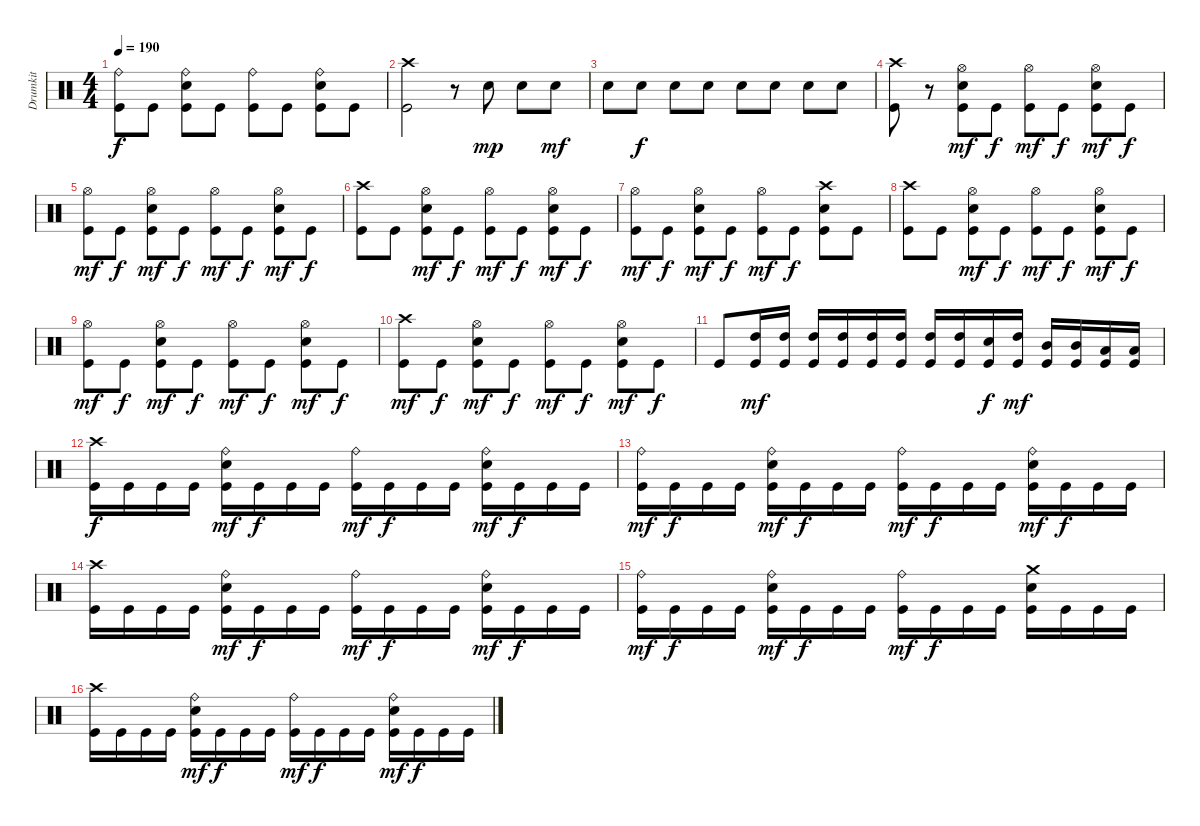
\track ("Drumkit" "Drumkit") {instrument percussion}
\staff {score}
\articulation defaults
\ts (4 4)
\tempo 190
\clef neutral
\ks c
("Ride (bell)" "Kick (hit)").8{dy f} "Kick (hit)".8 ("Ride (bell)" "Snare (hit) 2" "Kick (hit)").8 "Kick (hit)".8 ("Ride (bell)" "Kick (hit)").8 "Kick (hit)".8 ("Ride (bell)" "Snare (hit) 2" "Kick (hit)").8 "Kick (hit)".8 |
("Crash high (hit)" "Kick (hit)").2 r.8 "Snare (hit) 2".8{dy mp} "Snare (hit) 2".8 "Snare (hit) 2".8{dy mf} |
"Snare (hit) 2".8 "Snare (hit) 2".8{dy f} "Snare (hit) 2".8 "Snare (hit) 2".8 "Snare (hit) 2".8 "Snare (hit) 2".8 "Snare (hit) 2".8 "Snare (hit) 2".8 |
("Crash high (hit)" "Kick (hit)").8 r.8 ("Hi-Hat (open)" "Snare (hit) 2" "Kick (hit)").8{dy mf} "Kick (hit)".8{dy f} ("Hi-Hat (open)" "Kick (hit)").8{dy mf} "Kick (hit)".8{dy f} ("Hi-Hat (open)" "Snare (hit) 2" "Kick (hit)").8{dy mf} "Kick (hit)".8{dy f} |
("Hi-Hat (open)" "Kick (hit)").8{dy mf} "Kick (hit)".8{dy f} ("Hi-Hat (open)" "Snare (hit) 2" "Kick (hit)").8{dy mf} "Kick (hit)".8{dy f} ("Hi-Hat (open)" "Kick (hit)").8{dy mf} "Kick (hit)".8{dy f} ("Hi-Hat (open)" "Snare (hit) 2" "Kick (hit)").8{dy mf} "Kick (hit)".8{dy f} |
("Crash high (hit)" "Kick (hit)").8 "Kick (hit)".8 ("Hi-Hat (open)" "Snare (hit) 2" "Kick (hit)").8{dy mf} "Kick (hit)".8{dy f} ("Hi-Hat (open)" "Kick (hit)").8{dy mf} "Kick (hit)".8{dy f} ("Hi-Hat (open)" "Snare (hit) 2" "Kick (hit)").8{dy mf} "Kick (hit)".8{dy f} |
("Hi-Hat (open)" "Kick (hit)").8{dy mf} "Kick (hit)".8{dy f} ("Hi-Hat (open)" "Snare (hit) 2" "Kick (hit)").8{dy mf} "Kick (hit)".8{dy f} ("Hi-Hat (open)" "Kick (hit)").8{dy mf} "Kick (hit)".8{dy f} ("Crash high (hit)" "Snare (hit) 2" "Kick (hit)").8 "Kick (hit)".8 |
("Crash high (hit)" "Kick (hit)").8 "Kick (hit)".8 ("Hi-Hat (open)" "Snare (hit) 2" "Kick (hit)").8{dy mf} "Kick (hit)".8{dy f} ("Hi-Hat (open)" "Kick (hit)").8{dy mf} "Kick (hit)".8{dy f} ("Hi-Hat (open)" "Snare (hit) 2" "Kick (hit)").8{dy mf} "Kick (hit)".8{dy f} |
("Hi-Hat (open)" "Kick (hit)").8{dy mf} "Kick (hit)".8{dy f} ("Hi-Hat (open)" "Snare (hit) 2" "Kick (hit)").8{dy mf} "Kick (hit)".8{dy f} ("Hi-Hat (open)" "Kick (hit)").8{dy mf} "Kick (hit)".8{dy f} ("Hi-Hat (open)" "Snare (hit) 2" "Kick (hit)").8{dy mf} "Kick (hit)".8{dy f} |
("Crash high (hit)" "Kick (hit)").8{dy mf} "Kick (hit)".8{dy f} ("Hi-Hat (open)" "Snare (hit) 2" "Kick (hit)").8{dy mf} "Kick (hit)".8{dy f} ("Hi-Hat (open)" "Kick (hit)").8{dy mf} "Kick (hit)".8{dy f} ("Hi-Hat (open)" "Snare (hit) 2" "Kick (hit)").8{dy mf} "Kick (hit)".8{dy f} |
"Kick (hit)".8 ("High Tom (hit)" "Kick (hit)").16{dy mf} ("High Tom (hit)" "Kick (hit)").16 ("High Tom (hit)" "Kick (hit)").16 ("High Tom (hit)" "Kick (hit)").16 ("High Tom (hit)" "Kick (hit)").16 ("High Tom (hit)" "Kick (hit)").16 ("High Tom (hit)" "Kick (hit)").16 ("High Tom (hit)" "Kick (hit)").16 ("Snare (hit) 2" "Kick (hit)").16{dy f} ("High Tom (hit)" "Kick (hit)").16{dy mf} ("Mid Tom (hit)" "Kick (hit)").16 ("Mid Tom (hit)" "Kick (hit)").16 ("Low Tom (hit)" "Kick (hit)").16 ("Low Tom (hit)" "Kick (hit)").16 |
("Crash high (hit)" "Kick (hit)").16{dy f} "Kick (hit)".16 "Kick (hit)".16 "Kick (hit)".16 ("Ride (bell)" "Snare (hit) 2" "Kick (hit)").16{dy mf} "Kick (hit)".16{dy f} "Kick (hit)".16 "Kick (hit)".16 ("Ride (bell)" "Kick (hit)").16{dy mf} "Kick (hit)".16{dy f} "Kick (hit)".16 "Kick (hit)".16 ("Ride (bell)" "Snare (hit) 2" "Kick (hit)").16{dy mf} "Kick (hit)".16{dy f} "Kick (hit)".16 "Kick (hit)".16 |
("Ride (bell)" "Kick (hit)").16{dy mf} "Kick (hit)".16{dy f} "Kick (hit)".16 "Kick (hit)".16 ("Ride (bell)" "Snare (hit) 2" "Kick (hit)").16{dy mf} "Kick (hit)".16{dy f} "Kick (hit)".16 "Kick (hit)".16 ("Ride (bell)" "Kick (hit)").16{dy mf} "Kick (hit)".16{dy f} "Kick (hit)".16 "Kick (hit)".16 ("Ride (bell)" "Snare (hit) 2" "Kick (hit)").16{dy mf} "Kick (hit)".16{dy f} "Kick (hit)".16 "Kick (hit)".16 |
("Crash high (hit)" "Kick (hit)").16 "Kick (hit)".16 "Kick (hit)".16 "Kick (hit)".16 ("Ride (bell)" "Snare (hit) 2" "Kick (hit)").16{dy mf} "Kick (hit)".16{dy f} "Kick (hit)".16 "Kick (hit)".16 ("Ride (bell)" "Kick (hit)").16{dy mf} "Kick (hit)".16{dy f} "Kick (hit)".16 "Kick (hit)".16 ("Ride (bell)" "Snare (hit) 2" "Kick (hit)").16{dy mf} "Kick (hit)".16{dy f} "Kick (hit)".16 "Kick (hit)".16 |
("Ride (bell)" "Kick (hit)").16{dy mf} "Kick (hit)".16{dy f} "Kick (hit)".16 "Kick (hit)".16 ("Ride (bell)" "Snare (hit) 2" "Kick (hit)").16{dy mf} "Kick (hit)".16{dy f} "Kick (hit)".16 "Kick (hit)".16 ("Ride (bell)" "Kick (hit)").16{dy mf} "Kick (hit)".16{dy f} "Kick (hit)".16 "Kick (hit)".16 ("Crash medium (hit)" "Snare (hit) 2" "Kick (hit)").16 "Kick (hit)".16 "Kick (hit)".16 "Kick (hit)".16 |
("Crash high (hit)" "Kick (hit)").16 "Kick (hit)".16 "Kick (hit)".16 "Kick (hit)".16 ("Ride (bell)" "Snare (hit) 2" "Kick (hit)").16{dy mf} "Kick (hit)".16{dy f} "Kick (hit)".16 "Kick (hit)".16 ("Ride (bell)" "Kick (hit)").16{dy mf} "Kick (hit)".16{dy f} "Kick (hit)".16 "Kick (hit)".16 ("Ride (bell)" "Snare (hit) 2" "Kick (hit)").16{dy mf} "Kick (hit)".16{dy f} "Kick (hit)".16 "Kick (hit)".16
